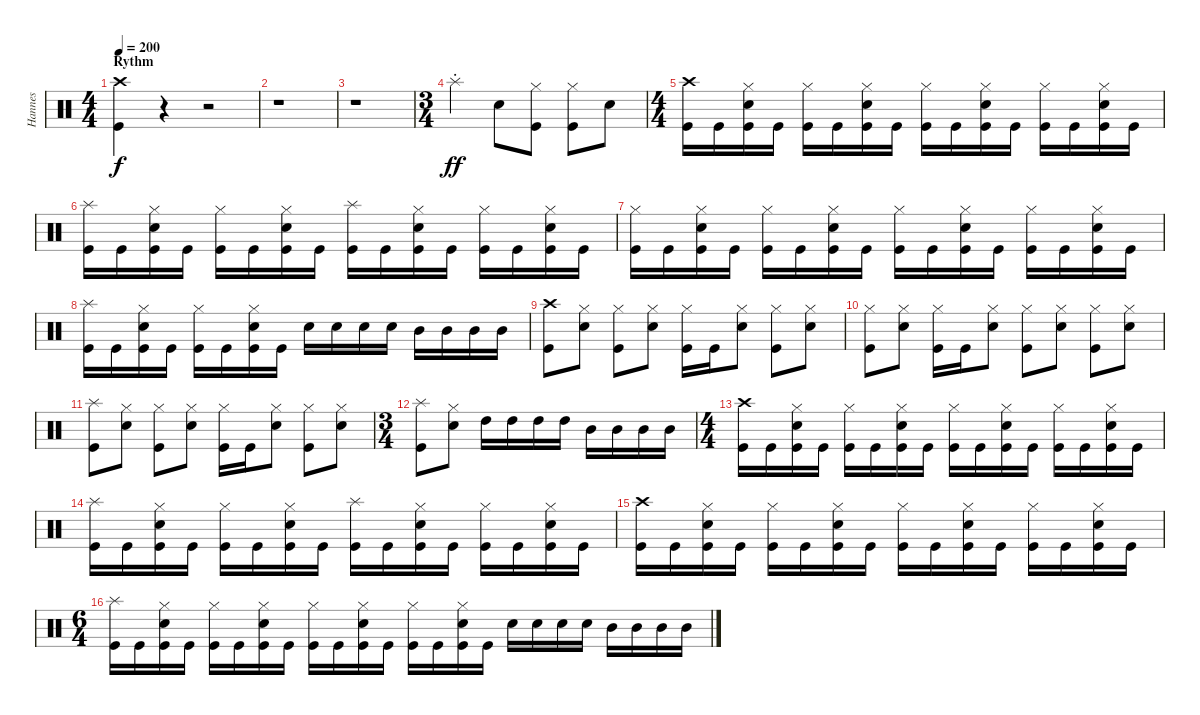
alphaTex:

\track ("Hannes" "Hannes") {instrument percussion}
\staff {score}
\articulation defaults
\ts (4 4)
\section ("" "Rythm")
\tempo 200
\clef neutral
\ks c
("Crash high (hit)" "Kick (hit)").4{dy f} r.4 r.2 |
r.1 |
r.1 |
\ts (3 4)
"Splash (hit)"{st}.4{dy ff} "Electric Snare (hit)".8 ("Hi-Hat (closed)" "Kick (hit)").8 ("Hi-Hat (closed)" "Kick (hit)").8 "Electric Snare (hit)".8 |
\ts (4 4)
("Crash high (hit)" "Kick (hit)").16 "Kick (hit)".16 ("Hi-Hat (closed)" "Electric Snare (hit)" "Kick (hit)").16 "Kick (hit)".16 ("Hi-Hat (closed)" "Kick (hit)").16 "Kick (hit)".16 ("Hi-Hat (closed)" "Electric Snare (hit)" "Kick (hit)").16 "Kick (hit)".16 ("Hi-Hat (closed)" "Kick (hit)").16 "Kick (hit)".16 ("Hi-Hat (closed)" "Electric Snare (hit)" "Kick (hit)").16 "Kick (hit)".16 ("Hi-Hat (closed)" "Kick (hit)").16 "Kick (hit)".16 ("Hi-Hat (closed)" "Electric Snare (hit)" "Kick (hit)").16 "Kick (hit)".16 |
("Splash (hit)" "Kick (hit)").16 "Kick (hit)".16 ("Hi-Hat (closed)" "Electric Snare (hit)" "Kick (hit)").16 "Kick (hit)".16 ("Hi-Hat (closed)" "Kick (hit)").16 "Kick (hit)".16 ("Hi-Hat (closed)" "Electric Snare (hit)" "Kick (hit)").16 "Kick (hit)".16 ("Splash (hit)" "Kick (hit)").16 "Kick (hit)".16 ("Hi-Hat (closed)" "Electric Snare (hit)" "Kick (hit)").16 "Kick (hit)".16 ("Hi-Hat (closed)" "Kick (hit)").16 "Kick (hit)".16 ("Hi-Hat (closed)" "Electric Snare (hit)" "Kick (hit)").16 "Kick (hit)".16 |
("Hi-Hat (closed)" "Kick (hit)").16 "Kick (hit)".16 ("Hi-Hat (closed)" "Electric Snare (hit)" "Kick (hit)").16 "Kick (hit)".16 ("Hi-Hat (closed)" "Kick (hit)").16 "Kick (hit)".16 ("Hi-Hat (closed)" "Electric Snare (hit)" "Kick (hit)").16 "Kick (hit)".16 ("Hi-Hat (closed)" "Kick (hit)").16 "Kick (hit)".16 ("Hi-Hat (closed)" "Electric Snare (hit)" "Kick (hit)").16 "Kick (hit)".16 ("Hi-Hat (closed)" "Kick (hit)").16 "Kick (hit)".16 ("Hi-Hat (closed)" "Electric Snare (hit)" "Kick (hit)").16 "Kick (hit)".16 |
("Splash (hit)" "Kick (hit)").16 "Kick (hit)".16 ("Hi-Hat (closed)" "Electric Snare (hit)" "Kick (hit)").16 "Kick (hit)".16 ("Hi-Hat (closed)" "Kick (hit)").16 "Kick (hit)".16 ("Hi-Hat (closed)" "Electric Snare (hit)" "Kick (hit)").16 "Kick (hit)".16 "Electric Snare (hit)".16 "Electric Snare (hit)".16 "Electric Snare (hit)".16 "Electric Snare (hit)".16 "Mid Tom (hit)".16 "Mid Tom (hit)".16 "Mid Tom (hit)".16 "Mid Tom (hit)".16 |
("Crash high (hit)" "Kick (hit)").8 ("Hi-Hat (closed)" "Electric Snare (hit)").8 ("Hi-Hat (closed)" "Kick (hit)").8 ("Hi-Hat (closed)" "Electric Snare (hit)").8 ("Hi-Hat (closed)" "Kick (hit)").16 "Kick (hit)".16 ("Hi-Hat (closed)" "Electric Snare (hit)").8 ("Hi-Hat (closed)" "Kick (hit)").8 ("Hi-Hat (closed)" "Electric Snare (hit)").8 |
("Hi-Hat (closed)" "Kick (hit)").8 ("Hi-Hat (closed)" "Electric Snare (hit)").8 ("Hi-Hat (closed)" "Kick (hit)").16 "Kick (hit)".16 ("Hi-Hat (closed)" "Electric Snare (hit)").8 ("Hi-Hat (closed)" "Kick (hit)").8 ("Hi-Hat (closed)" "Electric Snare (hit)").8 ("Hi-Hat (closed)" "Kick (hit)").8 ("Hi-Hat (closed)" "Electric Snare (hit)").8 |
("Splash (hit)" "Kick (hit)").8 ("Hi-Hat (closed)" "Electric Snare (hit)").8 ("Hi-Hat (closed)" "Kick (hit)").8 ("Hi-Hat (closed)" "Electric Snare (hit)").8 ("Hi-Hat (closed)" "Kick (hit)").16 "Kick (hit)".16 ("Hi-Hat (closed)" "Electric Snare (hit)").8 ("Hi-Hat (closed)" "Kick (hit)").8 ("Hi-Hat (closed)" "Electric Snare (hit)").8 |
\ts (3 4)
("Splash (hit)" "Kick (hit)").8 ("Hi-Hat (closed)" "Electric Snare (hit)").8 "High Tom (hit)".16 "High Tom (hit)".16 "High Tom (hit)".16 "High Tom (hit)".16 "Mid Tom (hit)".16 "Mid Tom (hit)".16 "Mid Tom (hit)".16 "Mid Tom (hit)".16 |
\ts (4 4)
("Crash high (hit)" "Kick (hit)").16 "Kick (hit)".16 ("Hi-Hat (closed)" "Electric Snare (hit)" "Kick (hit)").16 "Kick (hit)".16 ("Hi-Hat (closed)" "Kick (hit)").16 "Kick (hit)".16 ("Hi-Hat (closed)" "Electric Snare (hit)" "Kick (hit)").16 "Kick (hit)".16 ("Hi-Hat (closed)" "Kick (hit)").16 "Kick (hit)".16 ("Hi-Hat (closed)" "Electric Snare (hit)" "Kick (hit)").16 "Kick (hit)".16 ("Hi-Hat (closed)" "Kick (hit)").16 "Kick (hit)".16 ("Hi-Hat (closed)" "Electric Snare (hit)" "Kick (hit)").16 "Kick (hit)".16 |
("Splash (hit)" "Kick (hit)").16 "Kick (hit)".16 ("Hi-Hat (closed)" "Electric Snare (hit)" "Kick (hit)").16 "Kick (hit)".16 ("Hi-Hat (closed)" "Kick (hit)").16 "Kick (hit)".16 ("Hi-Hat (closed)" "Electric Snare (hit)" "Kick (hit)").16 "Kick (hit)".16 ("Splash (hit)" "Kick (hit)").16 "Kick (hit)".16 ("Hi-Hat (closed)" "Electric Snare (hit)" "Kick (hit)").16 "Kick (hit)".16 ("Hi-Hat (closed)" "Kick (hit)").16 "Kick (hit)".16 ("Hi-Hat (closed)" "Electric Snare (hit)" "Kick (hit)").16 "Kick (hit)".16 |
("Crash high (hit)" "Kick (hit)").16 "Kick (hit)".16 ("Hi-Hat (closed)" "Electric Snare (hit)" "Kick (hit)").16 "Kick (hit)".16 ("Hi-Hat (closed)" "Kick (hit)").16 "Kick (hit)".16 ("Hi-Hat (closed)" "Electric Snare (hit)" "Kick (hit)").16 "Kick (hit)".16 ("Hi-Hat (closed)" "Kick (hit)").16 "Kick (hit)".16 ("Hi-Hat (closed)" "Electric Snare (hit)" "Kick (hit)").16 "Kick (hit)".16 ("Hi-Hat (closed)" "Kick (hit)").16 "Kick (hit)".16 ("Hi-Hat (closed)" "Electric Snare (hit)" "Kick (hit)").16 "Kick (hit)".16 |
\ts (6 4)
("Splash (hit)" "Kick (hit)").16 "Kick (hit)".16 ("Hi-Hat (closed)" "Electric Snare (hit)" "Kick (hit)").16 "Kick (hit)".16 ("Hi-Hat (closed)" "Kick (hit)").16 "Kick (hit)".16 ("Hi-Hat (closed)" "Electric Snare (hit)" "Kick (hit)").16 "Kick (hit)".16 ("Hi-Hat (closed)" "Kick (hit)").16 "Kick (hit)".16 ("Hi-Hat (closed)" "Electric Snare (hit)" "Kick (hit)").16 "Kick (hit)".16 ("Hi-Hat (closed)" "Kick (hit)").16 "Kick (hit)".16 ("Hi-Hat (closed)" "Electric Snare (hit)" "Kick (hit)").16 "Kick (hit)".16 "Electric Snare (hit)".16 "Electric Snare (hit)".16 "Electric Snare (hit)".16 "Electric Snare (hit)".16 "Mid Tom (hit)".16 "Mid Tom (hit)".16 "Mid Tom (hit)".16 "Mid Tom (hit)".16
